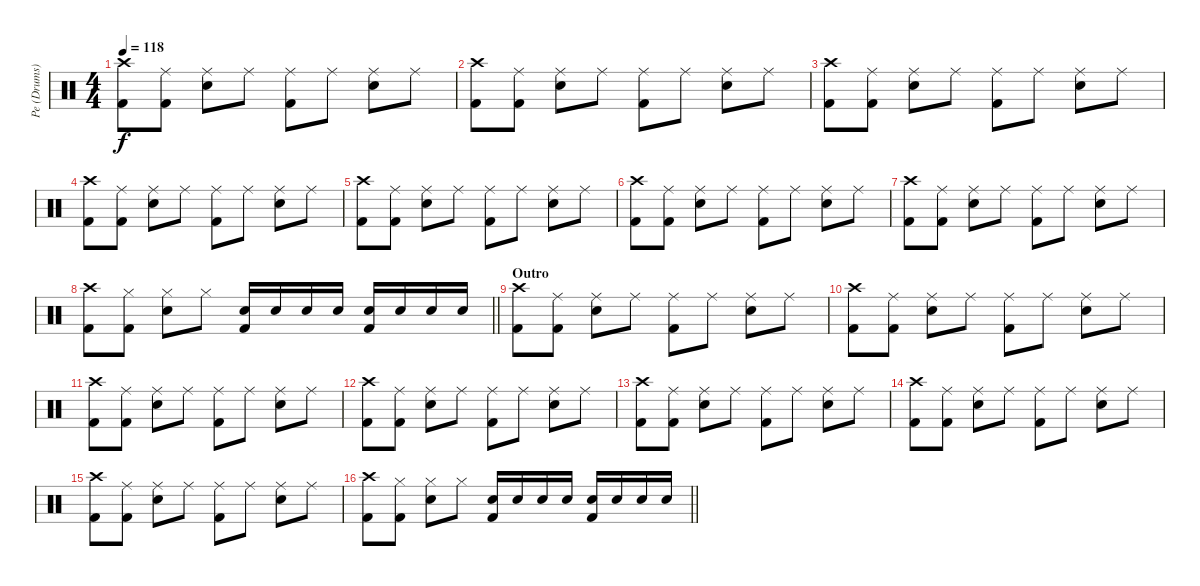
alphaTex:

\track ("Pe (Drums)" "Pe (Drums)") {instrument percussion}
\staff {score}
\articulation defaults
\ts (4 4)
\tempo 118
\clef neutral
\ks c
("Crash high (hit)" "Kick (hit) 2").8{dy f} ("Ride (middle)" "Kick (hit) 2").8 ("Ride (middle)" "Snare (hit) 2").8 "Ride (middle)".8 ("Ride (middle)" "Kick (hit) 2").8 "Ride (middle)".8 ("Ride (middle)" "Snare (hit) 2").8 "Ride (middle)".8 |
("Crash high (hit)" "Kick (hit) 2").8 ("Ride (middle)" "Kick (hit) 2").8 ("Ride (middle)" "Snare (hit) 2").8 "Ride (middle)".8 ("Ride (middle)" "Kick (hit) 2").8 "Ride (middle)".8 ("Ride (middle)" "Snare (hit) 2").8 "Ride (middle)".8 |
("Crash high (hit)" "Kick (hit) 2").8 ("Ride (middle)" "Kick (hit) 2").8 ("Ride (middle)" "Snare (hit) 2").8 "Ride (middle)".8 ("Ride (middle)" "Kick (hit) 2").8 "Ride (middle)".8 ("Ride (middle)" "Snare (hit) 2").8 "Ride (middle)".8 |
("Crash high (hit)" "Kick (hit) 2").8 ("Ride (middle)" "Kick (hit) 2").8 ("Ride (middle)" "Snare (hit) 2").8 "Ride (middle)".8 ("Ride (middle)" "Kick (hit) 2").8 "Ride (middle)".8 ("Ride (middle)" "Snare (hit) 2").8 "Ride (middle)".8 |
("Crash high (hit)" "Kick (hit) 2").8 ("Ride (middle)" "Kick (hit) 2").8 ("Ride (middle)" "Snare (hit) 2").8 "Ride (middle)".8 ("Ride (middle)" "Kick (hit) 2").8 "Ride (middle)".8 ("Ride (middle)" "Snare (hit) 2").8 "Ride (middle)".8 |
("Crash high (hit)" "Kick (hit) 2").8 ("Ride (middle)" "Kick (hit) 2").8 ("Ride (middle)" "Snare (hit) 2").8 "Ride (middle)".8 ("Ride (middle)" "Kick (hit) 2").8 "Ride (middle)".8 ("Ride (middle)" "Snare (hit) 2").8 "Ride (middle)".8 |
("Crash high (hit)" "Kick (hit) 2").8 ("Ride (middle)" "Kick (hit) 2").8 ("Ride (middle)" "Snare (hit) 2").8 "Ride (middle)".8 ("Ride (middle)" "Kick (hit) 2").8 "Ride (middle)".8 ("Ride (middle)" "Snare (hit) 2").8 "Ride (middle)".8 |
\barLineRight lightlight
("Crash high (hit)" "Kick (hit) 2").8 ("Hi-Hat (closed)" "Kick (hit) 2").8 ("Hi-Hat (closed)" "Snare (hit) 2").8 "Hi-Hat (closed)".8 ("Snare (hit) 2" "Kick (hit) 2").16 "Snare (hit) 2".16 "Snare (hit) 2".16 "Snare (hit) 2".16 ("Snare (hit) 2" "Kick (hit) 2").16 "Snare (hit) 2".16 "Snare (hit) 2".16 "Snare (hit) 2".16 |
\section ("" "Outro")
("Crash high (hit)" "Kick (hit) 2").8 ("Ride (middle)" "Kick (hit) 2").8 ("Ride (middle)" "Snare (hit) 2").8 "Ride (middle)".8 ("Ride (middle)" "Kick (hit) 2").8 "Ride (middle)".8 ("Ride (middle)" "Snare (hit) 2").8 "Ride (middle)".8 |
("Crash high (hit)" "Kick (hit) 2").8 ("Ride (middle)" "Kick (hit) 2").8 ("Ride (middle)" "Snare (hit) 2").8 "Ride (middle)".8 ("Ride (middle)" "Kick (hit) 2").8 "Ride (middle)".8 ("Ride (middle)" "Snare (hit) 2").8 "Ride (middle)".8 |
("Crash high (hit)" "Kick (hit) 2").8 ("Ride (middle)" "Kick (hit) 2").8 ("Ride (middle)" "Snare (hit) 2").8 "Ride (middle)".8 ("Ride (middle)" "Kick (hit) 2").8 "Ride (middle)".8 ("Ride (middle)" "Snare (hit) 2").8 "Ride (middle)".8 |
("Crash high (hit)" "Kick (hit) 2").8 ("Ride (middle)" "Kick (hit) 2").8 ("Ride (middle)" "Snare (hit) 2").8 "Ride (middle)".8 ("Ride (middle)" "Kick (hit) 2").8 "Ride (middle)".8 ("Ride (middle)" "Snare (hit) 2").8 "Ride (middle)".8 |
("Crash high (hit)" "Kick (hit) 2").8 ("Ride (middle)" "Kick (hit) 2").8 ("Ride (middle)" "Snare (hit) 2").8 "Ride (middle)".8 ("Ride (middle)" "Kick (hit) 2").8 "Ride (middle)".8 ("Ride (middle)" "Snare (hit) 2").8 "Ride (middle)".8 |
("Crash high (hit)" "Kick (hit) 2").8 ("Ride (middle)" "Kick (hit) 2").8 ("Ride (middle)" "Snare (hit) 2").8 "Ride (middle)".8 ("Ride (middle)" "Kick (hit) 2").8 "Ride (middle)".8 ("Ride (middle)" "Snare (hit) 2").8 "Ride (middle)".8 |
("Crash high (hit)" "Kick (hit) 2").8 ("Ride (middle)" "Kick (hit) 2").8 ("Ride (middle)" "Snare (hit) 2").8 "Ride (middle)".8 ("Ride (middle)" "Kick (hit) 2").8 "Ride (middle)".8 ("Ride (middle)" "Snare (hit) 2").8 "Ride (middle)".8 |
\barLineRight lightlight
("Crash high (hit)" "Kick (hit) 2").8 ("Hi-Hat (closed)" "Kick (hit) 2").8 ("Hi-Hat (closed)" "Snare (hit) 2").8 "Hi-Hat (closed)".8 ("Snare (hit) 2" "Kick (hit) 2").16 "Snare (hit) 2".16 "Snare (hit) 2".16 "Snare (hit) 2".16 ("Snare (hit) 2" "Kick (hit) 2").16 "Snare (hit) 2".16 "Snare (hit) 2".16 "Snare (hit) 2".16
